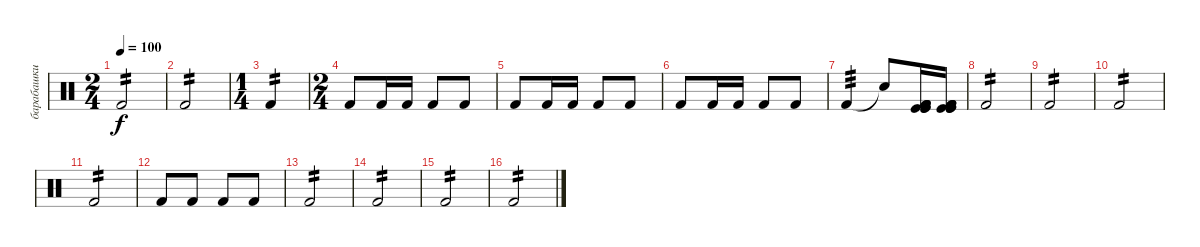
\track ("барабашки low" "барабашки ") {instrument percussion}
\staff {score}
\articulation defaults
\ts (2 4)
\tempo 100
\clef neutral
\ks c "Kick (hit) 2".2{tp 2 dy f}
|
"Kick (hit) 2".2{tp 2} |
\ts (1 4)
"Kick (hit) 2".4{tp 2} |
\ts (2 4)
"Kick (hit) 2".8 "Kick (hit) 2".16 "Kick (hit) 2".16 "Kick (hit) 2".8 "Kick (hit) 2".8 |
"Kick (hit) 2".8 "Kick (hit) 2".16 "Kick (hit) 2".16 "Kick (hit) 2".8 "Kick (hit) 2".8 |
"Kick (hit) 2".8 "Kick (hit) 2".16 "Kick (hit) 2".16 "Kick (hit) 2".8 "Kick (hit) 2".8 |
"Kick (hit) 2".4{tp 3} "Snare (hit)"{t}.8 ("Kick (hit)" "Kick (hit)" "Kick (hit)" "Kick (hit) 2" "Kick (hit) 2" "Kick (hit) 2").16 ("Kick (hit)" "Kick (hit)" "Kick (hit)" "Kick (hit) 2" "Kick (hit) 2" "Kick (hit) 2").16 |
"Kick (hit) 2".2{tp 2} |
"Kick (hit) 2".2{tp 2} |
"Kick (hit) 2".2{tp 2} |
"Kick (hit) 2".2{tp 2} |
"Kick (hit) 2".8 "Kick (hit) 2".8 "Kick (hit) 2".8 "Kick (hit) 2".8 |
"Kick (hit) 2".2{tp 2} |
"Kick (hit) 2".2{tp 2} |
"Kick (hit) 2".2{tp 2} |
"Kick (hit) 2".2{tp 2}
